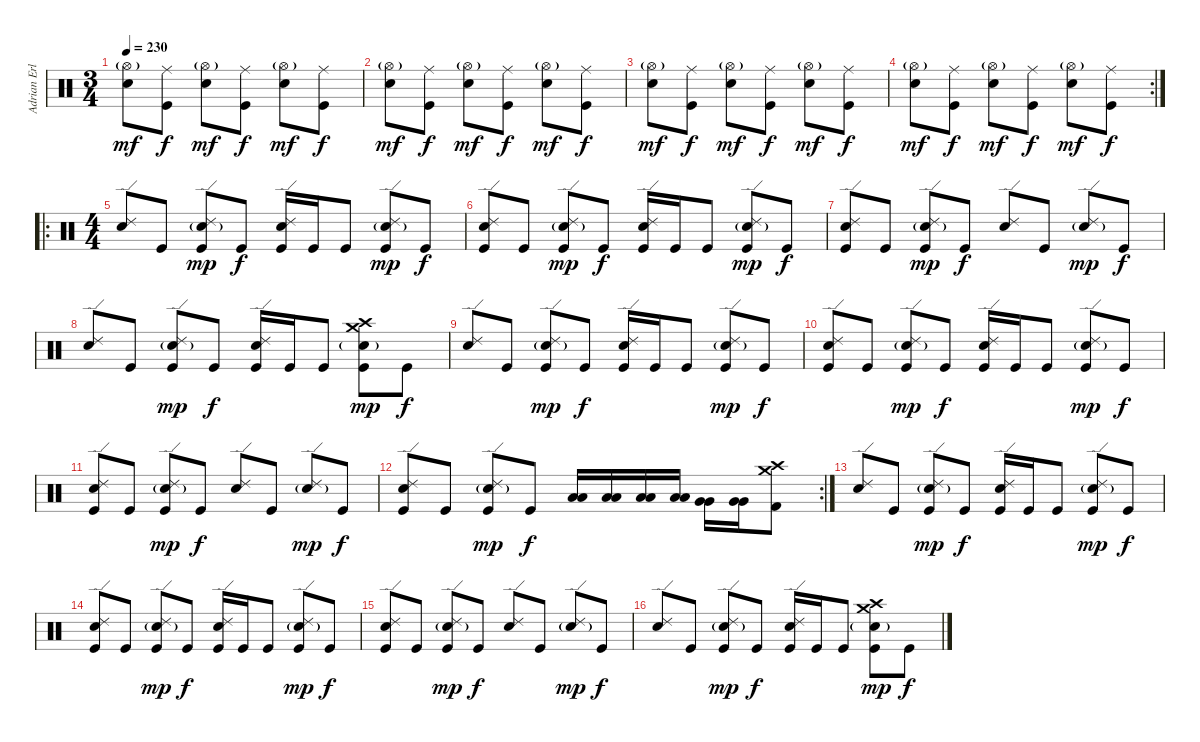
\track ("Adrian Erlandsson - Drums" "Adrian Erl") {instrument percussion}
\staff {score}
\articulation defaults
\ts (3 4)
\tempo 230
\clef neutral
\ks c
("Hi-Hat (open)"{g} "Electric Snare (hit)").8{dy mf} ("Ride (middle)" "Kick (hit)").8{dy f} ("Hi-Hat (open)"{g} "Electric Snare (hit)").8{dy mf} ("Ride (middle)" "Kick (hit)").8{dy f} ("Hi-Hat (open)"{g} "Electric Snare (hit)").8{dy mf} ("Ride (middle)" "Kick (hit)").8{dy f} |
("Hi-Hat (open)"{g} "Electric Snare (hit)").8{dy mf} ("Ride (middle)" "Kick (hit)").8{dy f} ("Hi-Hat (open)"{g} "Electric Snare (hit)").8{dy mf} ("Ride (middle)" "Kick (hit)").8{dy f} ("Hi-Hat (open)"{g} "Electric Snare (hit)").8{dy mf} ("Ride (middle)" "Kick (hit)").8{dy f} |
("Hi-Hat (open)"{g} "Electric Snare (hit)").8{dy mf} ("Ride (middle)" "Kick (hit)").8{dy f} ("Hi-Hat (open)"{g} "Electric Snare (hit)").8{dy mf} ("Ride (middle)" "Kick (hit)").8{dy f} ("Hi-Hat (open)"{g} "Electric Snare (hit)").8{dy mf} ("Ride (middle)" "Kick (hit)").8{dy f} |
\rc 2
("Hi-Hat (open)"{g} "Electric Snare (hit)").8{dy mf} ("Ride (middle)" "Kick (hit)").8{dy f} ("Hi-Hat (open)"{g} "Electric Snare (hit)").8{dy mf} ("Ride (middle)" "Kick (hit)").8{dy f} ("Hi-Hat (open)"{g} "Electric Snare (hit)").8{dy mf} ("Ride (middle)" "Kick (hit)").8{dy f} |
\ro
\ts (4 4)
("Ride (edge) 2" "Electric Snare (hit)").8 "Kick (hit)".8 ("Ride (edge) 2" "Electric Snare (hit)"{g} "Kick (hit)").8{dy mp} "Kick (hit)".8{dy f} ("Ride (edge) 2" "Electric Snare (hit)" "Kick (hit)").16 "Kick (hit)".16 "Kick (hit)".8 ("Ride (edge) 2" "Electric Snare (hit)"{g} "Kick (hit)").8{dy mp} "Kick (hit)".8{dy f} |
("Ride (edge) 2" "Electric Snare (hit)" "Kick (hit)").8 "Kick (hit)".8 ("Ride (edge) 2" "Electric Snare (hit)"{g} "Kick (hit)").8{dy mp} "Kick (hit)".8{dy f} ("Ride (edge) 2" "Electric Snare (hit)" "Kick (hit)").16 "Kick (hit)".16 "Kick (hit)".8 ("Ride (edge) 2" "Electric Snare (hit)"{g} "Kick (hit)").8{dy mp} "Kick (hit)".8{dy f} |
("Ride (edge) 2" "Electric Snare (hit)" "Kick (hit)").8 "Kick (hit)".8 ("Ride (edge) 2" "Electric Snare (hit)"{g} "Kick (hit)").8{dy mp} "Kick (hit)".8{dy f} ("Ride (edge) 2" "Electric Snare (hit)").8 "Kick (hit)".8 ("Ride (edge) 2" "Electric Snare (hit)"{g}).8{dy mp} "Kick (hit)".8{dy f} |
("Ride (edge) 2" "Electric Snare (hit)").8 "Kick (hit)".8 ("Ride (edge) 2" "Electric Snare (hit)"{g} "Kick (hit)").8{dy mp} "Kick (hit)".8{dy f} ("Ride (edge) 2" "Electric Snare (hit)" "Kick (hit)").16 "Kick (hit)".16 "Kick (hit)".8 ("Crash medium (hit)" "Crash high (hit)" "Electric Snare (hit)"{g} "Kick (hit)").8{dy mp} "Kick (hit)".8{dy f} |
("Ride (edge) 2" "Electric Snare (hit)").8 "Kick (hit)".8 ("Ride (edge) 2" "Electric Snare (hit)"{g} "Kick (hit)").8{dy mp} "Kick (hit)".8{dy f} ("Ride (edge) 2" "Electric Snare (hit)" "Kick (hit)").16 "Kick (hit)".16 "Kick (hit)".8 ("Ride (edge) 2" "Electric Snare (hit)"{g} "Kick (hit)").8{dy mp} "Kick (hit)".8{dy f} |
("Ride (edge) 2" "Electric Snare (hit)" "Kick (hit)").8 "Kick (hit)".8 ("Ride (edge) 2" "Electric Snare (hit)"{g} "Kick (hit)").8{dy mp} "Kick (hit)".8{dy f} ("Ride (edge) 2" "Electric Snare (hit)" "Kick (hit)").16 "Kick (hit)".16 "Kick (hit)".8 ("Ride (edge) 2" "Electric Snare (hit)"{g} "Kick (hit)").8{dy mp} "Kick (hit)".8{dy f} |
("Ride (edge) 2" "Electric Snare (hit)" "Kick (hit)").8 "Kick (hit)".8 ("Ride (edge) 2" "Electric Snare (hit)"{g} "Kick (hit)").8{dy mp} "Kick (hit)".8{dy f} ("Ride (edge) 2" "Electric Snare (hit)").8 "Kick (hit)".8 ("Ride (edge) 2" "Electric Snare (hit)"{g}).8{dy mp} "Kick (hit)".8{dy f} |
\rc 2
("Ride (edge) 2" "Electric Snare (hit)" "Kick (hit)").8 "Kick (hit)".8 ("Ride (edge) 2" "Electric Snare (hit)"{g} "Kick (hit)").8{dy mp} "Kick (hit)".8{dy f} ("Low Tom (hit)" "Low Tom (hit)").16 ("Low Tom (hit)" "Low Tom (hit)").16 ("Low Tom (hit)" "Low Tom (hit)").16 ("Low Tom (hit)" "Low Tom (hit)").16 ("Very Low Tom (hit)" "Very Low Tom (hit)").16 ("Very Low Tom (hit)" "Very Low Tom (hit)").16 ("Crash medium (hit)" "Crash high (hit)" "Kick (hit) 2").8 |
("Ride (edge) 2" "Electric Snare (hit)").8 "Kick (hit)".8 ("Ride (edge) 2" "Electric Snare (hit)"{g} "Kick (hit)").8{dy mp} "Kick (hit)".8{dy f} ("Ride (edge) 2" "Electric Snare (hit)" "Kick (hit)").16 "Kick (hit)".16 "Kick (hit)".8 ("Ride (edge) 2" "Electric Snare (hit)"{g} "Kick (hit)").8{dy mp} "Kick (hit)".8{dy f} |
("Ride (edge) 2" "Electric Snare (hit)" "Kick (hit)").8 "Kick (hit)".8 ("Ride (edge) 2" "Electric Snare (hit)"{g} "Kick (hit)").8{dy mp} "Kick (hit)".8{dy f} ("Ride (edge) 2" "Electric Snare (hit)" "Kick (hit)").16 "Kick (hit)".16 "Kick (hit)".8 ("Ride (edge) 2" "Electric Snare (hit)"{g} "Kick (hit)").8{dy mp} "Kick (hit)".8{dy f} |
("Ride (edge) 2" "Electric Snare (hit)" "Kick (hit)").8 "Kick (hit)".8 ("Ride (edge) 2" "Electric Snare (hit)"{g} "Kick (hit)").8{dy mp} "Kick (hit)".8{dy f} ("Ride (edge) 2" "Electric Snare (hit)").8 "Kick (hit)".8 ("Ride (edge) 2" "Electric Snare (hit)"{g}).8{dy mp} "Kick (hit)".8{dy f} |
("Ride (edge) 2" "Electric Snare (hit)").8 "Kick (hit)".8 ("Ride (edge) 2" "Electric Snare (hit)"{g} "Kick (hit)").8{dy mp} "Kick (hit)".8{dy f} ("Ride (edge) 2" "Electric Snare (hit)" "Kick (hit)").16 "Kick (hit)".16 "Kick (hit)".8 ("Crash medium (hit)" "Crash high (hit)" "Electric Snare (hit)"{g} "Kick (hit)").8{dy mp} "Kick (hit)".8{dy f}
